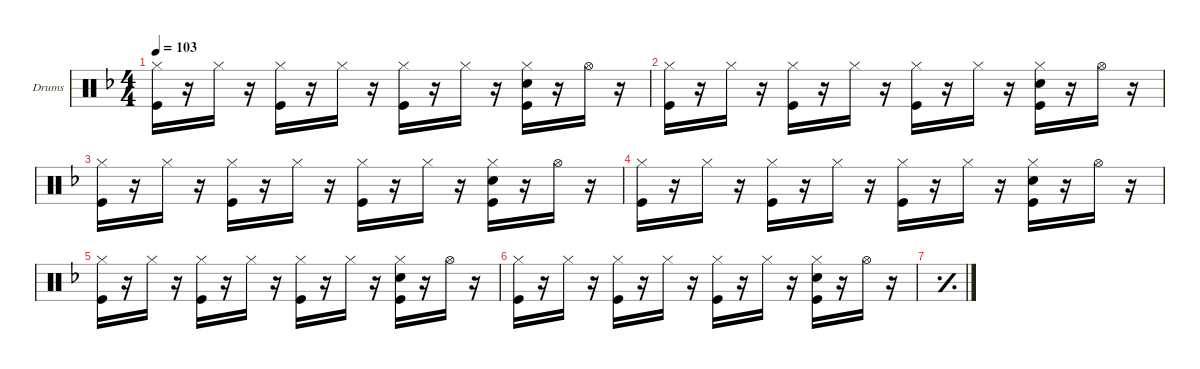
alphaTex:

\hideDynamics
\bracketExtendMode groupsimilarinstruments
\firstSystemTrackNameOrientation horizontal
\otherSystemsTrackNameOrientation horizontal
\track ("Drumkit" "Drums") {multiBarRest instrument percussion}
\staff {score}
\articulation defaults
\ts (4 4)
\tempo 103
\clef neutral
\ks f
("Kick (hit)" "Hi-Hat (closed)").16{dy f} r.16 "Hi-Hat (closed)".16 r.16 ("Kick (hit)" "Hi-Hat (closed)").16 r.16 "Hi-Hat (closed)".16 r.16 ("Kick (hit)" "Hi-Hat (closed)").16 r.16 "Hi-Hat (closed)".16 r.16 ("Hi-Hat (closed)" "Kick (hit)" "Snare (hit) 2").16 r.16 "Hi-Hat (open)".16 r.16 |
("Kick (hit)" "Hi-Hat (closed)").16 r.16 "Hi-Hat (closed)".16 r.16 ("Kick (hit)" "Hi-Hat (closed)").16 r.16 "Hi-Hat (closed)".16 r.16 ("Kick (hit)" "Hi-Hat (closed)").16 r.16 "Hi-Hat (closed)".16 r.16 ("Hi-Hat (closed)" "Kick (hit)" "Snare (hit) 2").16 r.16 "Hi-Hat (open)".16 r.16 |
("Kick (hit)" "Hi-Hat (closed)").16 r.16 "Hi-Hat (closed)".16 r.16 ("Kick (hit)" "Hi-Hat (closed)").16 r.16 "Hi-Hat (closed)".16 r.16 ("Kick (hit)" "Hi-Hat (closed)").16 r.16 "Hi-Hat (closed)".16 r.16 ("Hi-Hat (closed)" "Kick (hit)" "Snare (hit) 2").16 r.16 "Hi-Hat (open)".16 r.16 |
("Kick (hit)" "Hi-Hat (closed)").16 r.16 "Hi-Hat (closed)".16 r.16 ("Kick (hit)" "Hi-Hat (closed)").16 r.16 "Hi-Hat (closed)".16 r.16 ("Kick (hit)" "Hi-Hat (closed)").16 r.16 "Hi-Hat (closed)".16 r.16 ("Hi-Hat (closed)" "Kick (hit)" "Snare (hit) 2").16 r.16 "Hi-Hat (open)".16 r.16 |
("Kick (hit)" "Hi-Hat (closed)").16 r.16 "Hi-Hat (closed)".16 r.16 ("Kick (hit)" "Hi-Hat (closed)").16 r.16 "Hi-Hat (closed)".16 r.16 ("Kick (hit)" "Hi-Hat (closed)").16 r.16 "Hi-Hat (closed)".16 r.16 ("Hi-Hat (closed)" "Kick (hit)" "Snare (hit) 2").16 r.16 "Hi-Hat (open)".16 r.16 |
("Kick (hit)" "Hi-Hat (closed)").16 r.16 "Hi-Hat (closed)".16 r.16 ("Kick (hit)" "Hi-Hat (closed)").16 r.16 "Hi-Hat (closed)".16 r.16 ("Kick (hit)" "Hi-Hat (closed)").16 r.16 "Hi-Hat (closed)".16 r.16 ("Hi-Hat (closed)" "Kick (hit)" "Snare (hit) 2").16 r.16 "Hi-Hat (open)".16 r.16 |
\simile simple
